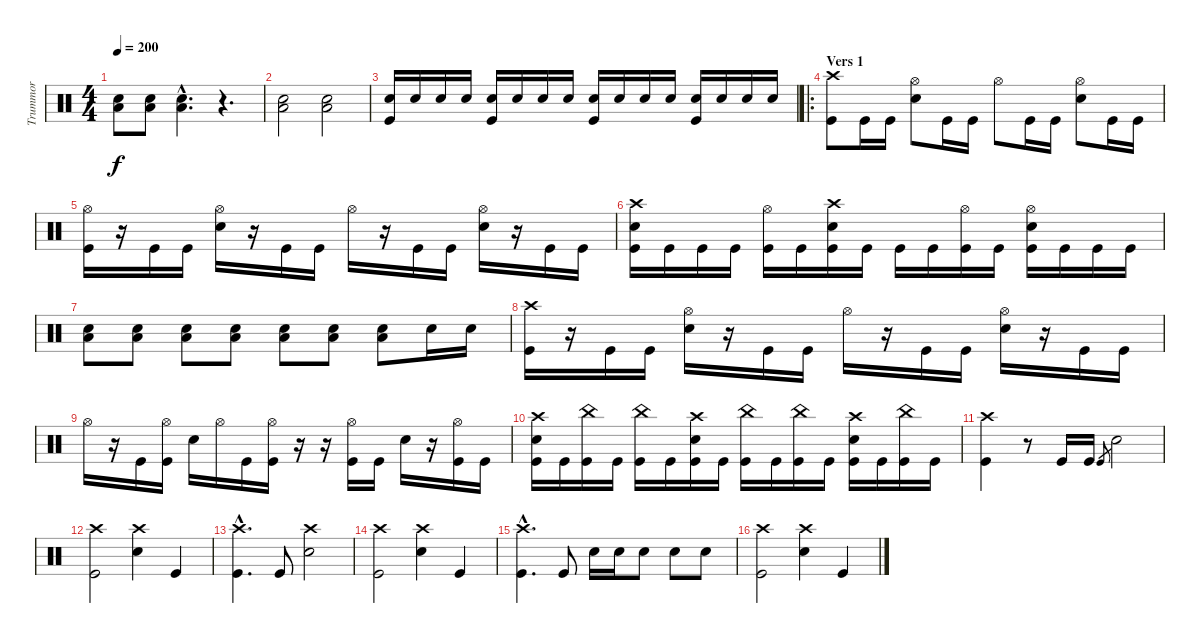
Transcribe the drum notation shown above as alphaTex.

\track ("Trummor" "Trummor") {instrument percussion}
\staff {score}
\articulation defaults
\ts (4 4)
\tempo 200
\clef neutral
\ks c
("Electric Snare (hit)" "Low Floor Tom (hit)").8{dy f} ("Electric Snare (hit)" "Low Floor Tom (hit)").8 ("Electric Snare (hit)"{hac} "Low Floor Tom (hit)"{hac}).4{d} r.4{d} |
("Electric Snare (hit)" "Low Floor Tom (hit)").2 ("Electric Snare (hit)" "Low Floor Tom (hit)").2 |
("Electric Snare (hit)" "Kick (hit)").16 "Electric Snare (hit)".16 "Electric Snare (hit)".16 "Electric Snare (hit)".16 ("Electric Snare (hit)" "Kick (hit)").16 "Electric Snare (hit)".16 "Electric Snare (hit)".16 "Electric Snare (hit)".16 ("Electric Snare (hit)" "Kick (hit)").16 "Electric Snare (hit)".16 "Electric Snare (hit)".16 "Electric Snare (hit)".16 ("Electric Snare (hit)" "Kick (hit)").16 "Electric Snare (hit)".16 "Electric Snare (hit)".16 "Electric Snare (hit)".16 |
\ro
\section ("" "Vers 1")
("Crash high (hit)" "Kick (hit)").8 "Kick (hit)".16 "Kick (hit)".16 ("Hi-Hat (open)" "Electric Snare (hit)").8 "Kick (hit)".16 "Kick (hit)".16 "Hi-Hat (open)".8 "Kick (hit)".16 "Kick (hit)".16 ("Hi-Hat (open)" "Electric Snare (hit)").8 "Kick (hit)".16 "Kick (hit)".16 |
("Hi-Hat (open)" "Kick (hit)").16 r.16 "Kick (hit)".16 "Kick (hit)".16 ("Hi-Hat (open)" "Electric Snare (hit)").16 r.16 "Kick (hit)".16 "Kick (hit)".16 "Hi-Hat (open)".16 r.16 "Kick (hit)".16 "Kick (hit)".16 ("Hi-Hat (open)" "Electric Snare (hit)").16 r.16 "Kick (hit)".16 "Kick (hit)".16 |
("Crash high (hit)" "Electric Snare (hit)" "Kick (hit)").16 "Kick (hit)".16 "Kick (hit)".16 "Kick (hit)".16 ("Hi-Hat (open)" "Kick (hit)").16 "Kick (hit)".16 ("Crash high (hit)" "Electric Snare (hit)" "Kick (hit)").16 "Kick (hit)".16 "Kick (hit)".16 "Kick (hit)".16 ("Hi-Hat (open)" "Kick (hit)").16 "Kick (hit)".16 ("Hi-Hat (open)" "Electric Snare (hit)" "Kick (hit)").16 "Kick (hit)".16 "Kick (hit)".16 "Kick (hit)".16 |
("Electric Snare (hit)" "Low Floor Tom (hit)").8 ("Electric Snare (hit)" "Low Floor Tom (hit)").8 ("Electric Snare (hit)" "Low Floor Tom (hit)").8 ("Electric Snare (hit)" "Low Floor Tom (hit)").8 ("Electric Snare (hit)" "Low Floor Tom (hit)").8 ("Electric Snare (hit)" "Low Floor Tom (hit)").8 ("Electric Snare (hit)" "Low Floor Tom (hit)").8 "Electric Snare (hit)".16 "Electric Snare (hit)".16 |
("Crash high (hit)" "Kick (hit)").16 r.16 "Kick (hit)".16 "Kick (hit)".16 ("Hi-Hat (open)" "Electric Snare (hit)").16 r.16 "Kick (hit)".16 "Kick (hit)".16 "Hi-Hat (open)".16 r.16 "Kick (hit)".16 "Kick (hit)".16 ("Hi-Hat (open)" "Electric Snare (hit)").16 r.16 "Kick (hit)".16 "Kick (hit)".16 |
"Hi-Hat (open)".16 r.16 "Kick (hit)".16 ("Hi-Hat (open)" "Kick (hit)").16 "Electric Snare (hit)".16 "Hi-Hat (open)".16 "Kick (hit)".16 ("Hi-Hat (open)" "Kick (hit)").16 r.16 r.16 ("Hi-Hat (open)" "Kick (hit)").16 "Kick (hit)".16 "Electric Snare (hit)".16 r.16 ("Hi-Hat (open)" "Kick (hit)").16 "Kick (hit)".16 |
("Crash high (hit)" "Electric Snare (hit)" "Kick (hit)").16 "Kick (hit)".16 ("China (hit)" "Kick (hit)").16 "Kick (hit)".16 ("China (hit)" "Kick (hit)").16 "Kick (hit)".16 ("Crash high (hit)" "Electric Snare (hit)" "Kick (hit)").16 "Kick (hit)".16 ("China (hit)" "Kick (hit)").16 "Kick (hit)".16 ("China (hit)" "Kick (hit)").16 "Kick (hit)".16 ("Crash high (hit)" "Electric Snare (hit)" "Kick (hit)").16 "Kick (hit)".16 ("China (hit)" "Kick (hit)").16 "Kick (hit)".16 |
("Crash high (hit)" "Kick (hit)").4 r.8 "Kick (hit)".16 "Kick (hit)".16 "Kick (hit)"{sl}.8{gr} "Electric Snare (hit)".2 |
("Crash high (hit)" "Kick (hit)").2 ("Crash high (hit)" "Electric Snare (hit)").4 "Kick (hit)".4 |
("Crash high (hit)"{hac} "Kick (hit)"{hac}).4{d} "Kick (hit)".8 ("Crash high (hit)" "Electric Snare (hit)").2 |
("Crash high (hit)" "Kick (hit)").2 ("Crash high (hit)" "Electric Snare (hit)").4 "Kick (hit)".4 |
("Crash high (hit)"{hac} "Kick (hit)"{hac}).4{d} "Kick (hit)".8 "Electric Snare (hit)".16 "Electric Snare (hit)".16 "Electric Snare (hit)".8 "Electric Snare (hit)".8 "Electric Snare (hit)".8 |
("Crash high (hit)" "Kick (hit)").2 ("Crash high (hit)" "Electric Snare (hit)").4 "Kick (hit)".4
